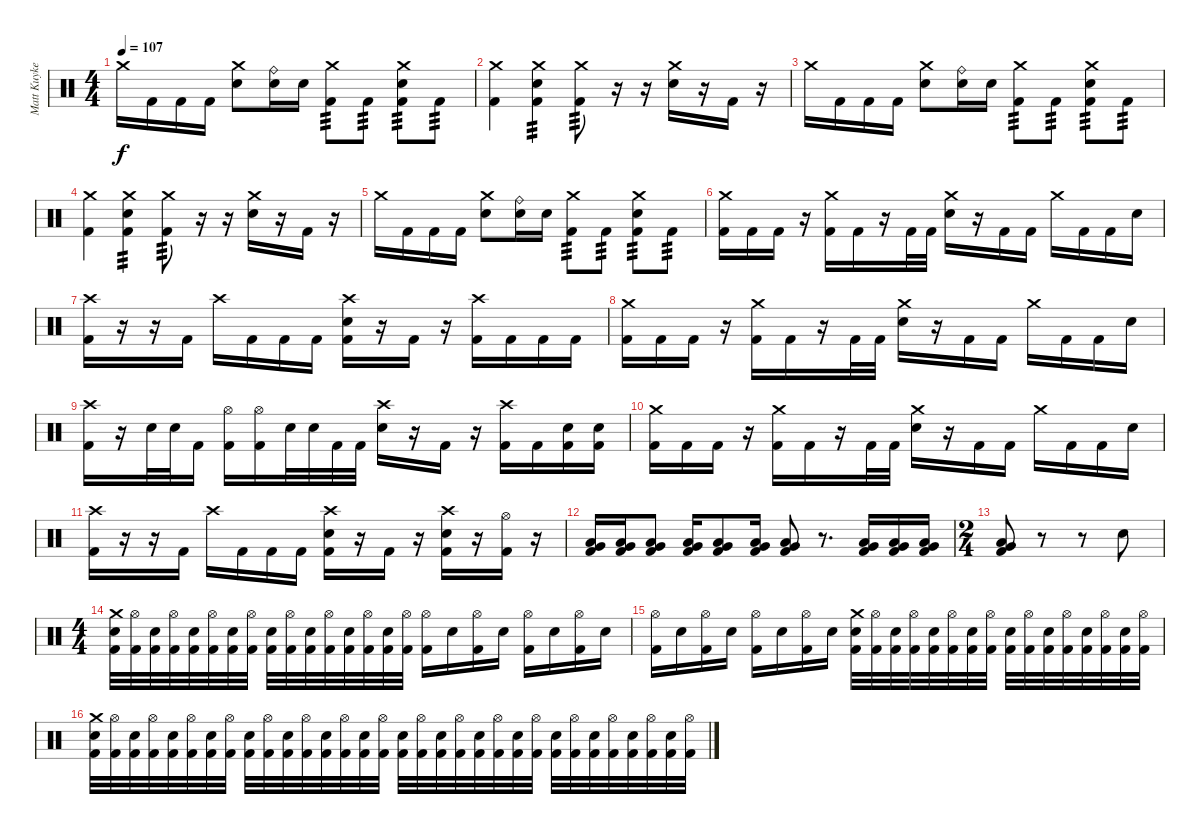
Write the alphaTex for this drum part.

\track ("Matt Kuykendall" "Matt Kuyke") {instrument percussion}
\staff {score}
\articulation defaults
\ts (4 4)
\tempo 107
\clef neutral
\ks c "Crash medium (hit)".16{dy f} "Kick (hit) 2".16 "Kick (hit) 2".16 "Kick (hit) 2".16
("Crash medium (hit)" "Electric Snare (hit)").8 ("Ride (bell)" "Electric Snare (hit)").16 "Electric Snare (hit)".16 ("Crash medium (hit)" "Kick (hit) 2").8{tp 3} "Kick (hit) 2".8{tp 3} ("Crash medium (hit)" "Electric Snare (hit)" "Kick (hit) 2").8{tp 3} "Kick (hit) 2".8{tp 3} |
("Crash medium (hit)" "Kick (hit) 2").4 ("Crash medium (hit)" "Electric Snare (hit)" "Kick (hit) 2").4{tp 3} ("Crash medium (hit)" "Kick (hit) 2").8{tp 3} r.16 r.16 ("Crash medium (hit)" "Electric Snare (hit)").16 r.16 "Kick (hit) 2".16 r.16 |
"Crash medium (hit)".16 "Kick (hit) 2".16 "Kick (hit) 2".16 "Kick (hit) 2".16 ("Crash medium (hit)" "Electric Snare (hit)").8 ("Ride (bell)" "Electric Snare (hit)").16 "Electric Snare (hit)".16 ("Crash medium (hit)" "Kick (hit) 2").8{tp 3} "Kick (hit) 2".8{tp 3} ("Crash medium (hit)" "Electric Snare (hit)" "Kick (hit) 2").8{tp 3} "Kick (hit) 2".8{tp 3} |
("Crash medium (hit)" "Kick (hit) 2").4 ("Crash medium (hit)" "Electric Snare (hit)" "Kick (hit) 2").4{tp 3} ("Crash medium (hit)" "Kick (hit) 2").8{tp 3} r.16 r.16 ("Crash medium (hit)" "Electric Snare (hit)").16 r.16 "Kick (hit) 2".16 r.16 |
"Crash medium (hit)".16 "Kick (hit) 2".16 "Kick (hit) 2".16 "Kick (hit) 2".16 ("Crash medium (hit)" "Electric Snare (hit)").8 ("Ride (bell)" "Electric Snare (hit)").16 "Electric Snare (hit)".16 ("Crash medium (hit)" "Kick (hit) 2").8{tp 3} "Kick (hit) 2".8{tp 3} ("Crash medium (hit)" "Electric Snare (hit)" "Kick (hit) 2").8{tp 3} "Kick (hit) 2".8{tp 3} |
("Crash medium (hit)" "Kick (hit) 2").16 "Kick (hit) 2".16 "Kick (hit) 2".16 r.16 ("Crash medium (hit)" "Kick (hit) 2").16 "Kick (hit) 2".16 r.16 "Kick (hit) 2".32 "Kick (hit) 2".32 ("Crash medium (hit)" "Electric Snare (hit)").16 r.16 "Kick (hit) 2".16 "Kick (hit) 2".16 "Crash medium (hit)".16 "Kick (hit) 2".16 "Kick (hit) 2".16 "Electric Snare (hit)".16 |
("Crash high (hit)" "Kick (hit) 2").16 r.16 r.16 "Kick (hit) 2".16 "Crash high (hit)".16 "Kick (hit) 2".16 "Kick (hit) 2".16 "Kick (hit) 2".16 ("Crash high (hit)" "Electric Snare (hit)" "Kick (hit) 2").16 r.16 "Kick (hit) 2".16 r.16 ("Crash high (hit)" "Kick (hit) 2").16 "Kick (hit) 2".16 "Kick (hit) 2".16 "Kick (hit) 2".16 |
("Crash medium (hit)" "Kick (hit) 2").16 "Kick (hit) 2".16 "Kick (hit) 2".16 r.16 ("Crash medium (hit)" "Kick (hit) 2").16 "Kick (hit) 2".16 r.16 "Kick (hit) 2".32 "Kick (hit) 2".32 ("Crash medium (hit)" "Electric Snare (hit)").16 r.16 "Kick (hit) 2".16 "Kick (hit) 2".16 "Crash medium (hit)".16 "Kick (hit) 2".16 "Kick (hit) 2".16 "Electric Snare (hit)".16 |
("Crash high (hit)" "Kick (hit) 2").16 r.16 "Electric Snare (hit)".32 "Electric Snare (hit)".32 "Kick (hit) 2".16 ("Hi-Hat (open)" "Kick (hit) 2").16 ("Hi-Hat (open)" "Kick (hit) 2").16 "Electric Snare (hit)".32 "Electric Snare (hit)".32 "Kick (hit) 2".32 "Kick (hit) 2".32 ("Crash high (hit)" "Electric Snare (hit)").16 r.16 "Kick (hit) 2".16 r.16 ("Crash high (hit)" "Kick (hit) 2").16 "Kick (hit) 2".16 ("Electric Snare (hit)" "Kick (hit) 2").16 ("Electric Snare (hit)" "Kick (hit) 2").16 |
("Crash medium (hit)" "Kick (hit) 2").16 "Kick (hit) 2".16 "Kick (hit) 2".16 r.16 ("Crash medium (hit)" "Kick (hit) 2").16 "Kick (hit) 2".16 r.16 "Kick (hit) 2".32 "Kick (hit) 2".32 ("Crash medium (hit)" "Electric Snare (hit)").16 r.16 "Kick (hit) 2".16 "Kick (hit) 2".16 "Crash medium (hit)".16 "Kick (hit) 2".16 "Kick (hit) 2".16 "Electric Snare (hit)".16 |
("Crash high (hit)" "Kick (hit) 2").16 r.16 r.16 "Kick (hit) 2".16 "Crash high (hit)".16 "Kick (hit) 2".16 "Kick (hit) 2".16 "Kick (hit) 2".16 ("Crash high (hit)" "Electric Snare (hit)" "Kick (hit) 2").16 r.16 "Kick (hit) 2".16 r.16 ("Crash high (hit)" "Electric Snare (hit)" "Kick (hit) 2").16 r.16 ("Hi-Hat (open)" "Kick (hit) 2").16 r.16 |
("Low Floor Tom (hit)" "Very Low Tom (hit)" "Kick (hit) 2").16 ("Low Floor Tom (hit)" "Very Low Tom (hit)" "Kick (hit) 2").16 ("Low Floor Tom (hit)" "Very Low Tom (hit)" "Kick (hit) 2").8 ("Low Floor Tom (hit)" "Very Low Tom (hit)" "Kick (hit) 2").16 ("Low Floor Tom (hit)" "Very Low Tom (hit)" "Kick (hit) 2").8 ("Low Floor Tom (hit)" "Very Low Tom (hit)" "Kick (hit) 2").16 ("Low Floor Tom (hit)" "Very Low Tom (hit)" "Kick (hit) 2").8 r.8{d} ("Low Floor Tom (hit)" "Very Low Tom (hit)" "Kick (hit) 2").16 ("Low Floor Tom (hit)" "Very Low Tom (hit)" "Kick (hit) 2").16 ("Low Floor Tom (hit)" "Very Low Tom (hit)" "Kick (hit) 2").16 |
\ts (2 4)
("Low Floor Tom (hit)" "Very Low Tom (hit)" "Kick (hit) 2").8 r.8 r.8 "Electric Snare (hit)".8 |
\ts (4 4)
("Crash medium (hit)" "Electric Snare (hit)" "Kick (hit) 2").32 ("Hi-Hat (open)" "Kick (hit) 2").32 ("Electric Snare (hit)" "Kick (hit) 2").32 ("Hi-Hat (open)" "Kick (hit) 2").32 ("Electric Snare (hit)" "Kick (hit) 2").32 ("Hi-Hat (open)" "Kick (hit) 2").32 ("Electric Snare (hit)" "Kick (hit) 2").32 ("Hi-Hat (open)" "Kick (hit) 2").32 ("Electric Snare (hit)" "Kick (hit) 2").32 ("Hi-Hat (open)" "Kick (hit) 2").32 ("Electric Snare (hit)" "Kick (hit) 2").32 ("Hi-Hat (open)" "Kick (hit) 2").32 ("Electric Snare (hit)" "Kick (hit) 2").32 ("Hi-Hat (open)" "Kick (hit) 2").32 ("Electric Snare (hit)" "Kick (hit) 2").32 ("Hi-Hat (open)" "Kick (hit) 2").32 ("Hi-Hat (open)" "Kick (hit) 2").16 "Electric Snare (hit)".16 ("Hi-Hat (open)" "Kick (hit) 2").16 "Electric Snare (hit)".16 ("Hi-Hat (open)" "Kick (hit) 2").16 "Electric Snare (hit)".16 ("Hi-Hat (open)" "Kick (hit) 2").16 "Electric Snare (hit)".16 |
("Hi-Hat (open)" "Kick (hit) 2").16 "Electric Snare (hit)".16 ("Hi-Hat (open)" "Kick (hit) 2").16 "Electric Snare (hit)".16 ("Hi-Hat (open)" "Kick (hit) 2").16 "Electric Snare (hit)".16 ("Hi-Hat (open)" "Kick (hit) 2").16 "Electric Snare (hit)".16 ("Crash medium (hit)" "Electric Snare (hit)" "Kick (hit) 2").32 ("Hi-Hat (open)" "Kick (hit) 2").32 ("Electric Snare (hit)" "Kick (hit) 2").32 ("Hi-Hat (open)" "Kick (hit) 2").32 ("Electric Snare (hit)" "Kick (hit) 2").32 ("Hi-Hat (open)" "Kick (hit) 2").32 ("Electric Snare (hit)" "Kick (hit) 2").32 ("Hi-Hat (open)" "Kick (hit) 2").32 ("Electric Snare (hit)" "Kick (hit) 2").32 ("Hi-Hat (open)" "Kick (hit) 2").32 ("Electric Snare (hit)" "Kick (hit) 2").32 ("Hi-Hat (open)" "Kick (hit) 2").32 ("Electric Snare (hit)" "Kick (hit) 2").32 ("Hi-Hat (open)" "Kick (hit) 2").32 ("Electric Snare (hit)" "Kick (hit) 2").32 ("Hi-Hat (open)" "Kick (hit) 2").32 |
("Crash medium (hit)" "Electric Snare (hit)" "Kick (hit) 2").32 ("Hi-Hat (open)" "Kick (hit) 2").32 ("Electric Snare (hit)" "Kick (hit) 2").32 ("Hi-Hat (open)" "Kick (hit) 2").32 ("Electric Snare (hit)" "Kick (hit) 2").32 ("Hi-Hat (open)" "Kick (hit) 2").32 ("Electric Snare (hit)" "Kick (hit) 2").32 ("Hi-Hat (open)" "Kick (hit) 2").32 ("Electric Snare (hit)" "Kick (hit) 2").32 ("Hi-Hat (open)" "Kick (hit) 2").32 ("Electric Snare (hit)" "Kick (hit) 2").32 ("Hi-Hat (open)" "Kick (hit) 2").32 ("Electric Snare (hit)" "Kick (hit) 2").32 ("Hi-Hat (open)" "Kick (hit) 2").32 ("Electric Snare (hit)" "Kick (hit) 2").32 ("Hi-Hat (open)" "Kick (hit) 2").32 ("Electric Snare (hit)" "Kick (hit) 2").32 ("Hi-Hat (open)" "Kick (hit) 2").32 ("Electric Snare (hit)" "Kick (hit) 2").32 ("Hi-Hat (open)" "Kick (hit) 2").32 ("Electric Snare (hit)" "Kick (hit) 2").32 ("Hi-Hat (open)" "Kick (hit) 2").32 ("Electric Snare (hit)" "Kick (hit) 2").32 ("Hi-Hat (open)" "Kick (hit) 2").32 ("Electric Snare (hit)" "Kick (hit) 2").32 ("Hi-Hat (open)" "Kick (hit) 2").32 ("Electric Snare (hit)" "Kick (hit) 2").32 ("Hi-Hat (open)" "Kick (hit) 2").32 ("Electric Snare (hit)" "Kick (hit) 2").32 ("Hi-Hat (open)" "Kick (hit) 2").32 ("Electric Snare (hit)" "Kick (hit) 2").32 ("Hi-Hat (open)" "Kick (hit) 2").32
